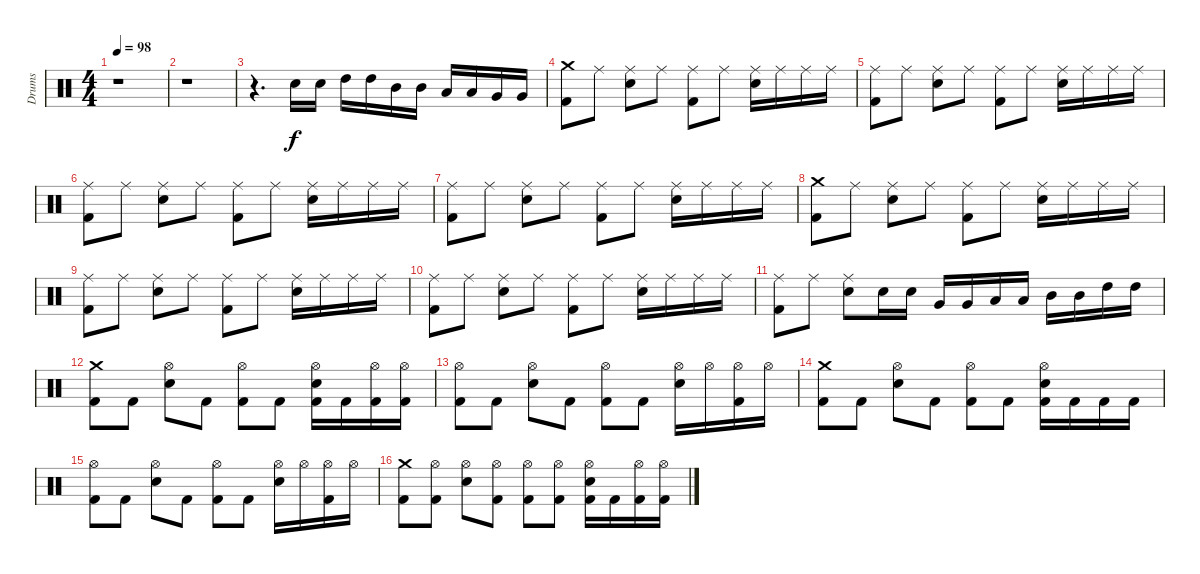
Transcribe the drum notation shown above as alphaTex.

\track ("Drums" "Drums") {instrument percussion}
\staff {score}
\articulation defaults
\ts (4 4)
\tempo 98
\clef neutral
\ks c
r.1{dy f} |
r.1 |
r.4{d} "Electric Snare (hit)".16 "Electric Snare (hit)".16 "High Tom (hit)".16 "High Tom (hit)".16 "Mid Tom (hit)".16 "Mid Tom (hit)".16 "Low Tom (hit)".16 "Low Tom (hit)".16 "Very Low Tom (hit)".16 "Very Low Tom (hit)".16 |
("Kick (hit) 2" "Crash medium (hit)").8 "Ride (middle)".8 ("Electric Snare (hit)" "Ride (middle)").8 "Ride (middle)".8 ("Kick (hit) 2" "Ride (middle)").8 "Ride (middle)".8 ("Electric Snare (hit)" "Ride (middle)").16 "Ride (middle)".16 "Ride (middle)".16 "Ride (middle)".16 |
("Kick (hit) 2" "Ride (middle)").8 "Ride (middle)".8 ("Electric Snare (hit)" "Ride (middle)").8 "Ride (middle)".8 ("Kick (hit) 2" "Ride (middle)").8 "Ride (middle)".8 ("Electric Snare (hit)" "Ride (middle)").16 "Ride (middle)".16 "Ride (middle)".16 "Ride (middle)".16 |
("Kick (hit) 2" "Ride (middle)").8 "Ride (middle)".8 ("Electric Snare (hit)" "Ride (middle)").8 "Ride (middle)".8 ("Kick (hit) 2" "Ride (middle)").8 "Ride (middle)".8 ("Electric Snare (hit)" "Ride (middle)").16 "Ride (middle)".16 "Ride (middle)".16 "Ride (middle)".16 |
("Kick (hit) 2" "Ride (middle)").8 "Ride (middle)".8 ("Electric Snare (hit)" "Ride (middle)").8 "Ride (middle)".8 ("Kick (hit) 2" "Ride (middle)").8 "Ride (middle)".8 ("Electric Snare (hit)" "Ride (middle)").16 "Ride (middle)".16 "Ride (middle)".16 "Ride (middle)".16 |
("Kick (hit) 2" "Crash medium (hit)").8 "Ride (middle)".8 ("Electric Snare (hit)" "Ride (middle)").8 "Ride (middle)".8 ("Kick (hit) 2" "Ride (middle)").8 "Ride (middle)".8 ("Electric Snare (hit)" "Ride (middle)").16 "Ride (middle)".16 "Ride (middle)".16 "Ride (middle)".16 |
("Kick (hit) 2" "Ride (middle)").8 "Ride (middle)".8 ("Electric Snare (hit)" "Ride (middle)").8 "Ride (middle)".8 ("Kick (hit) 2" "Ride (middle)").8 "Ride (middle)".8 ("Electric Snare (hit)" "Ride (middle)").16 "Ride (middle)".16 "Ride (middle)".16 "Ride (middle)".16 |
("Kick (hit) 2" "Ride (middle)").8 "Ride (middle)".8 ("Electric Snare (hit)" "Ride (middle)").8 "Ride (middle)".8 ("Kick (hit) 2" "Ride (middle)").8 "Ride (middle)".8 ("Electric Snare (hit)" "Ride (middle)").16 "Ride (middle)".16 "Ride (middle)".16 "Ride (middle)".16 |
("Kick (hit) 2" "Ride (middle)").8 "Ride (middle)".8 ("Electric Snare (hit)" "Ride (middle)").8 "Electric Snare (hit)".16 "Electric Snare (hit)".16 "Very Low Tom (hit)".16 "Very Low Tom (hit)".16 "Low Tom (hit)".16 "Low Tom (hit)".16 "Mid Tom (hit)".16 "Mid Tom (hit)".16 "High Tom (hit)".16 "High Tom (hit)".16 |
("Kick (hit) 2" "Crash medium (hit)").8 "Kick (hit) 2".8 ("Electric Snare (hit)" "Hi-Hat (open)").8 "Kick (hit) 2".8 ("Kick (hit) 2" "Hi-Hat (open)").8 "Kick (hit) 2".8 ("Kick (hit) 2" "Electric Snare (hit)" "Hi-Hat (open)").16 "Kick (hit) 2".16 ("Kick (hit) 2" "Hi-Hat (open)").16 ("Kick (hit) 2" "Hi-Hat (open)").16 |
("Kick (hit) 2" "Hi-Hat (open)").8 "Kick (hit) 2".8 ("Electric Snare (hit)" "Hi-Hat (open)").8 "Kick (hit) 2".8 ("Kick (hit) 2" "Hi-Hat (open)").8 "Kick (hit) 2".8 ("Electric Snare (hit)" "Hi-Hat (open)").16 "Hi-Hat (open)".16 ("Kick (hit) 2" "Hi-Hat (open)").16 "Hi-Hat (open)".16 |
("Kick (hit) 2" "Crash medium (hit)").8 "Kick (hit) 2".8 ("Electric Snare (hit)" "Hi-Hat (open)").8 "Kick (hit) 2".8 ("Kick (hit) 2" "Hi-Hat (open)").8 "Kick (hit) 2".8 ("Kick (hit) 2" "Electric Snare (hit)" "Hi-Hat (open)").16 "Kick (hit) 2".16 "Kick (hit) 2".16 "Kick (hit) 2".16 |
("Kick (hit) 2" "Hi-Hat (open)").8 "Kick (hit) 2".8 ("Electric Snare (hit)" "Hi-Hat (open)").8 "Kick (hit) 2".8 ("Kick (hit) 2" "Hi-Hat (open)").8 "Kick (hit) 2".8 ("Electric Snare (hit)" "Hi-Hat (open)").16 "Hi-Hat (open)".16 ("Kick (hit) 2" "Hi-Hat (open)").16 "Hi-Hat (open)".16 |
("Kick (hit) 2" "Crash medium (hit)").8 ("Kick (hit) 2" "Hi-Hat (open)").8 ("Electric Snare (hit)" "Hi-Hat (open)").8 ("Kick (hit) 2" "Hi-Hat (open)").8 ("Kick (hit) 2" "Hi-Hat (open)").8 ("Kick (hit) 2" "Hi-Hat (open)").8 ("Kick (hit) 2" "Electric Snare (hit)" "Hi-Hat (open)").16 "Kick (hit) 2".16 ("Kick (hit) 2" "Hi-Hat (open)").16 ("Kick (hit) 2" "Hi-Hat (open)").16
